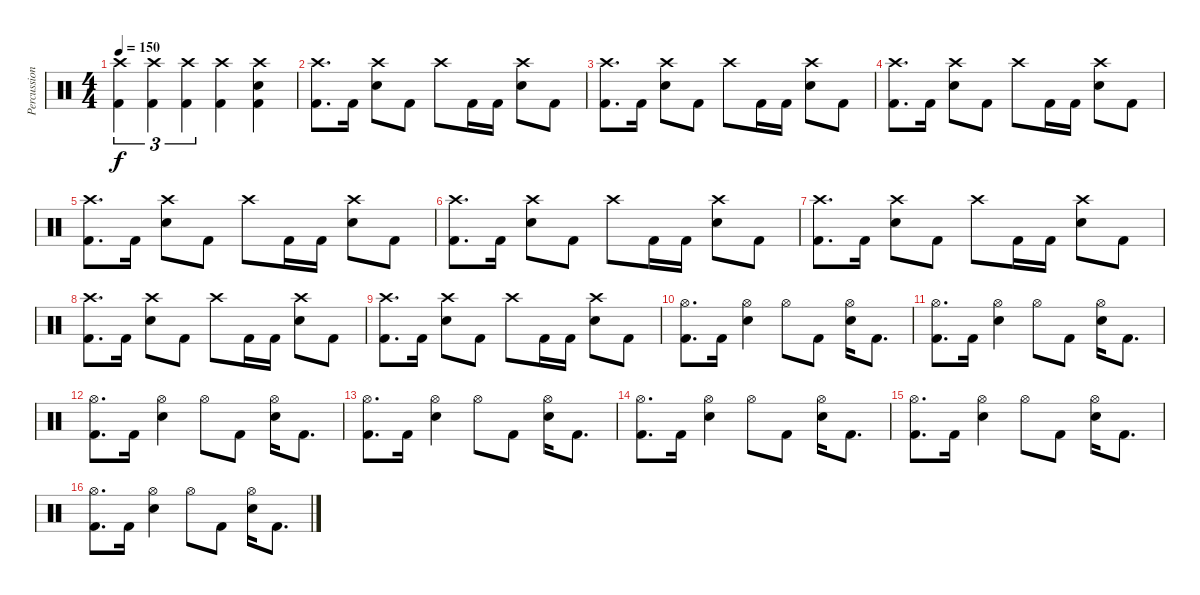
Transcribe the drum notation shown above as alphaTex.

\track ("Percussion" "Percussion") {instrument percussion}
\staff {score}
\articulation defaults
\ts (4 4)
\tempo 150
\clef neutral
\ks c
("Crash high (hit)" "Kick (hit) 2").4{tu (3 2) dy f} ("Crash high (hit)" "Kick (hit) 2").4{tu (3 2)} ("Crash high (hit)" "Kick (hit) 2").4{tu (3 2)} ("Crash high (hit)" "Kick (hit) 2").4 ("Crash high (hit)" "Snare (hit) 2" "Kick (hit) 2").4 |
("Crash high (hit)" "Kick (hit) 2").8{d} "Kick (hit) 2".16 ("Crash high (hit)" "Snare (hit) 2").8 "Kick (hit) 2".8 "Crash high (hit)".8 "Kick (hit) 2".16 "Kick (hit) 2".16 ("Crash high (hit)" "Snare (hit) 2").8 "Kick (hit) 2".8 |
("Crash high (hit)" "Kick (hit) 2").8{d} "Kick (hit) 2".16 ("Crash high (hit)" "Snare (hit) 2").8 "Kick (hit) 2".8 "Crash high (hit)".8 "Kick (hit) 2".16 "Kick (hit) 2".16 ("Crash high (hit)" "Snare (hit) 2").8 "Kick (hit) 2".8 |
("Crash high (hit)" "Kick (hit) 2").8{d} "Kick (hit) 2".16 ("Crash high (hit)" "Snare (hit) 2").8 "Kick (hit) 2".8 "Crash high (hit)".8 "Kick (hit) 2".16 "Kick (hit) 2".16 ("Crash high (hit)" "Snare (hit) 2").8 "Kick (hit) 2".8 |
("Crash high (hit)" "Kick (hit) 2").8{d} "Kick (hit) 2".16 ("Crash high (hit)" "Snare (hit) 2").8 "Kick (hit) 2".8 "Crash high (hit)".8 "Kick (hit) 2".16 "Kick (hit) 2".16 ("Crash high (hit)" "Snare (hit) 2").8 "Kick (hit) 2".8 |
("Crash high (hit)" "Kick (hit) 2").8{d} "Kick (hit) 2".16 ("Crash high (hit)" "Snare (hit) 2").8 "Kick (hit) 2".8 "Crash high (hit)".8 "Kick (hit) 2".16 "Kick (hit) 2".16 ("Crash high (hit)" "Snare (hit) 2").8 "Kick (hit) 2".8 |
("Crash high (hit)" "Kick (hit) 2").8{d} "Kick (hit) 2".16 ("Crash high (hit)" "Snare (hit) 2").8 "Kick (hit) 2".8 "Crash high (hit)".8 "Kick (hit) 2".16 "Kick (hit) 2".16 ("Crash high (hit)" "Snare (hit) 2").8 "Kick (hit) 2".8 |
("Crash high (hit)" "Kick (hit) 2").8{d} "Kick (hit) 2".16 ("Crash high (hit)" "Snare (hit) 2").8 "Kick (hit) 2".8 "Crash high (hit)".8 "Kick (hit) 2".16 "Kick (hit) 2".16 ("Crash high (hit)" "Snare (hit) 2").8 "Kick (hit) 2".8 |
("Crash high (hit)" "Kick (hit) 2").8{d} "Kick (hit) 2".16 ("Crash high (hit)" "Snare (hit) 2").8 "Kick (hit) 2".8 "Crash high (hit)".8 "Kick (hit) 2".16 "Kick (hit) 2".16 ("Crash high (hit)" "Snare (hit) 2").8 "Kick (hit) 2".8 |
("Hi-Hat (open)" "Kick (hit) 2").8{d} "Kick (hit) 2".16 ("Hi-Hat (open)" "Snare (hit) 2").4 "Hi-Hat (open)".8 "Kick (hit) 2".8 ("Hi-Hat (open)" "Snare (hit) 2").16 "Kick (hit) 2".8{d} |
("Hi-Hat (open)" "Kick (hit) 2").8{d} "Kick (hit) 2".16 ("Hi-Hat (open)" "Snare (hit) 2").4 "Hi-Hat (open)".8 "Kick (hit) 2".8 ("Hi-Hat (open)" "Snare (hit) 2").16 "Kick (hit) 2".8{d} |
("Hi-Hat (open)" "Kick (hit) 2").8{d} "Kick (hit) 2".16 ("Hi-Hat (open)" "Snare (hit) 2").4 "Hi-Hat (open)".8 "Kick (hit) 2".8 ("Hi-Hat (open)" "Snare (hit) 2").16 "Kick (hit) 2".8{d} |
("Hi-Hat (open)" "Kick (hit) 2").8{d} "Kick (hit) 2".16 ("Hi-Hat (open)" "Snare (hit) 2").4 "Hi-Hat (open)".8 "Kick (hit) 2".8 ("Hi-Hat (open)" "Snare (hit) 2").16 "Kick (hit) 2".8{d} |
("Hi-Hat (open)" "Kick (hit) 2").8{d} "Kick (hit) 2".16 ("Hi-Hat (open)" "Snare (hit) 2").4 "Hi-Hat (open)".8 "Kick (hit) 2".8 ("Hi-Hat (open)" "Snare (hit) 2").16 "Kick (hit) 2".8{d} |
("Hi-Hat (open)" "Kick (hit) 2").8{d} "Kick (hit) 2".16 ("Hi-Hat (open)" "Snare (hit) 2").4 "Hi-Hat (open)".8 "Kick (hit) 2".8 ("Hi-Hat (open)" "Snare (hit) 2").16 "Kick (hit) 2".8{d} |
("Hi-Hat (open)" "Kick (hit) 2").8{d} "Kick (hit) 2".16 ("Hi-Hat (open)" "Snare (hit) 2").4 "Hi-Hat (open)".8 "Kick (hit) 2".8 ("Hi-Hat (open)" "Snare (hit) 2").16 "Kick (hit) 2".8{d}
